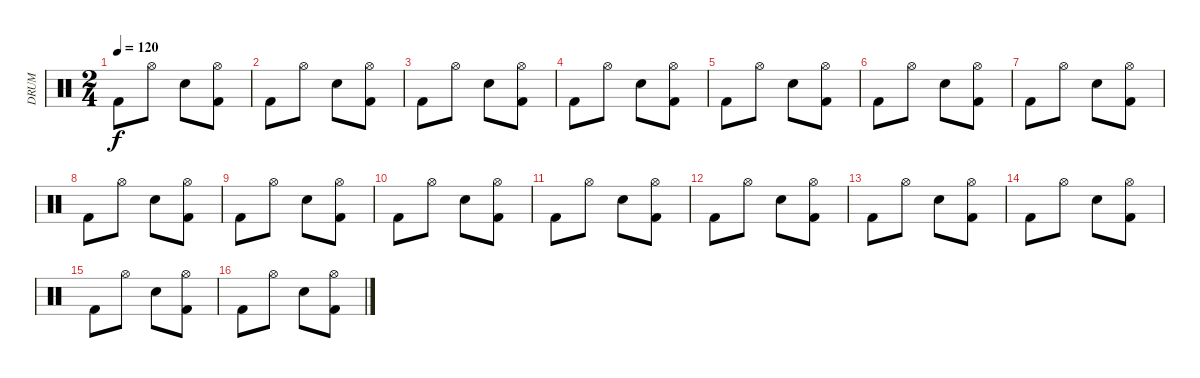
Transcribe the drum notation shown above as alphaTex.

\track ("DRUM" "DRUM") {instrument percussion}
\staff {score}
\articulation defaults
\ts (2 4)
\tempo 120
\clef neutral
\ks c "Kick (hit) 2".8{dy f} "Hi-Hat (open)".8 "Electric Snare (hit)".8
("Kick (hit) 2" "Hi-Hat (open)").8 |
"Kick (hit) 2".8 "Hi-Hat (open)".8 "Electric Snare (hit)".8 ("Kick (hit) 2" "Hi-Hat (open)").8 |
"Kick (hit) 2".8 "Hi-Hat (open)".8 "Electric Snare (hit)".8 ("Kick (hit) 2" "Hi-Hat (open)").8 |
"Kick (hit) 2".8 "Hi-Hat (open)".8 "Electric Snare (hit)".8 ("Kick (hit) 2" "Hi-Hat (open)").8 |
"Kick (hit) 2".8 "Hi-Hat (open)".8 "Electric Snare (hit)".8 ("Kick (hit) 2" "Hi-Hat (open)").8 |
"Kick (hit) 2".8 "Hi-Hat (open)".8 "Electric Snare (hit)".8 ("Kick (hit) 2" "Hi-Hat (open)").8 |
"Kick (hit) 2".8 "Hi-Hat (open)".8 "Electric Snare (hit)".8 ("Kick (hit) 2" "Hi-Hat (open)").8 |
"Kick (hit) 2".8 "Hi-Hat (open)".8 "Electric Snare (hit)".8 ("Kick (hit) 2" "Hi-Hat (open)").8 |
"Kick (hit) 2".8 "Hi-Hat (open)".8 "Electric Snare (hit)".8 ("Kick (hit) 2" "Hi-Hat (open)").8 |
"Kick (hit) 2".8 "Hi-Hat (open)".8 "Electric Snare (hit)".8 ("Kick (hit) 2" "Hi-Hat (open)").8 |
"Kick (hit) 2".8 "Hi-Hat (open)".8 "Electric Snare (hit)".8 ("Kick (hit) 2" "Hi-Hat (open)").8 |
"Kick (hit) 2".8 "Hi-Hat (open)".8 "Electric Snare (hit)".8 ("Kick (hit) 2" "Hi-Hat (open)").8 |
"Kick (hit) 2".8 "Hi-Hat (open)".8 "Electric Snare (hit)".8 ("Kick (hit) 2" "Hi-Hat (open)").8 |
"Kick (hit) 2".8 "Hi-Hat (open)".8 "Electric Snare (hit)".8 ("Kick (hit) 2" "Hi-Hat (open)").8 |
"Kick (hit) 2".8 "Hi-Hat (open)".8 "Electric Snare (hit)".8 ("Kick (hit) 2" "Hi-Hat (open)").8 |
"Kick (hit) 2".8 "Hi-Hat (open)".8 "Electric Snare (hit)".8 ("Kick (hit) 2" "Hi-Hat (open)").8
